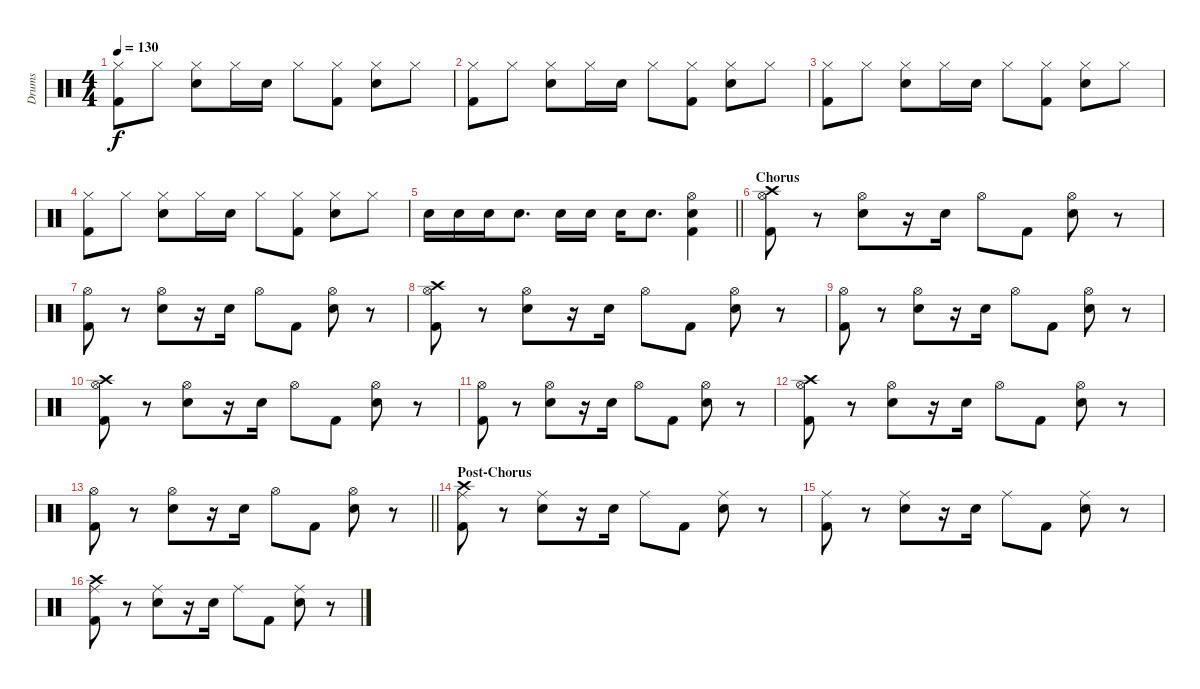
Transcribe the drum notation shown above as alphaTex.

\track ("Drums" "Drums") {instrument percussion}
\staff {score}
\articulation defaults
\ts (4 4)
\tempo 130
\clef neutral
\ks c
("Hi-Hat (closed)" "Kick (hit) 2").8{dy f} "Hi-Hat (closed)".8 ("Hi-Hat (closed)" "Snare (hit) 2").8 "Hi-Hat (closed)".16 "Snare (hit) 2".16 "Hi-Hat (closed)".8 ("Hi-Hat (closed)" "Kick (hit) 2").8 ("Hi-Hat (closed)" "Snare (hit) 2").8 "Hi-Hat (closed)".8 |
("Hi-Hat (closed)" "Kick (hit) 2").8 "Hi-Hat (closed)".8 ("Hi-Hat (closed)" "Snare (hit) 2").8 "Hi-Hat (closed)".16 "Snare (hit) 2".16 "Hi-Hat (closed)".8 ("Hi-Hat (closed)" "Kick (hit) 2").8 ("Hi-Hat (closed)" "Snare (hit) 2").8 "Hi-Hat (closed)".8 |
("Hi-Hat (closed)" "Kick (hit) 2").8 "Hi-Hat (closed)".8 ("Hi-Hat (closed)" "Snare (hit) 2").8 "Hi-Hat (closed)".16 "Snare (hit) 2".16 "Hi-Hat (closed)".8 ("Hi-Hat (closed)" "Kick (hit) 2").8 ("Hi-Hat (closed)" "Snare (hit) 2").8 "Hi-Hat (closed)".8 |
("Hi-Hat (closed)" "Kick (hit) 2").8 "Hi-Hat (closed)".8 ("Hi-Hat (closed)" "Snare (hit) 2").8 "Hi-Hat (closed)".16 "Snare (hit) 2".16 "Hi-Hat (closed)".8 ("Hi-Hat (closed)" "Kick (hit) 2").8 ("Hi-Hat (closed)" "Snare (hit) 2").8 "Hi-Hat (closed)".8 |
\barLineRight lightlight "Snare (hit) 2".16 "Snare (hit) 2".16 "Snare (hit) 2".16 "Snare (hit) 2".8{d} "Snare (hit) 2".16 "Snare (hit) 2".16 "Snare (hit) 2".16 "Snare (hit) 2".8{d}
("Hi-Hat (open)" "Snare (hit) 2" "Kick (hit) 2").4 |
\section ("" "Chorus")
("Crash high (hit)" "Hi-Hat (open)" "Kick (hit) 2").8 r.8 ("Hi-Hat (open)" "Snare (hit) 2").8 r.16 "Snare (hit) 2".16 "Hi-Hat (open)".8 "Kick (hit) 2".8 ("Hi-Hat (open)" "Snare (hit) 2").8 r.8 |
("Hi-Hat (open)" "Kick (hit) 2").8 r.8 ("Hi-Hat (open)" "Snare (hit) 2").8 r.16 "Snare (hit) 2".16 "Hi-Hat (open)".8 "Kick (hit) 2".8 ("Hi-Hat (open)" "Snare (hit) 2").8 r.8 |
("Crash high (hit)" "Hi-Hat (open)" "Kick (hit) 2").8 r.8 ("Hi-Hat (open)" "Snare (hit) 2").8 r.16 "Snare (hit) 2".16 "Hi-Hat (open)".8 "Kick (hit) 2".8 ("Hi-Hat (open)" "Snare (hit) 2").8 r.8 |
("Hi-Hat (open)" "Kick (hit) 2").8 r.8 ("Hi-Hat (open)" "Snare (hit) 2").8 r.16 "Snare (hit) 2".16 "Hi-Hat (open)".8 "Kick (hit) 2".8 ("Hi-Hat (open)" "Snare (hit) 2").8 r.8 |
("Crash high (hit)" "Hi-Hat (open)" "Kick (hit) 2").8 r.8 ("Hi-Hat (open)" "Snare (hit) 2").8 r.16 "Snare (hit) 2".16 "Hi-Hat (open)".8 "Kick (hit) 2".8 ("Hi-Hat (open)" "Snare (hit) 2").8 r.8 |
("Hi-Hat (open)" "Kick (hit) 2").8 r.8 ("Hi-Hat (open)" "Snare (hit) 2").8 r.16 "Snare (hit) 2".16 "Hi-Hat (open)".8 "Kick (hit) 2".8 ("Hi-Hat (open)" "Snare (hit) 2").8 r.8 |
("Crash high (hit)" "Hi-Hat (open)" "Kick (hit) 2").8 r.8 ("Hi-Hat (open)" "Snare (hit) 2").8 r.16 "Snare (hit) 2".16 "Hi-Hat (open)".8 "Kick (hit) 2".8 ("Hi-Hat (open)" "Snare (hit) 2").8 r.8 |
\barLineRight lightlight
("Hi-Hat (open)" "Kick (hit) 2").8 r.8 ("Hi-Hat (open)" "Snare (hit) 2").8 r.16 "Snare (hit) 2".16 "Hi-Hat (open)".8 "Kick (hit) 2".8 ("Hi-Hat (open)" "Snare (hit) 2").8 r.8 |
\section ("" "Post-Chorus")
("Crash high (hit)" "Ride (middle)" "Kick (hit) 2").8 r.8 ("Ride (middle)" "Snare (hit) 2").8 r.16 "Snare (hit) 2".16 "Ride (middle)".8 "Kick (hit) 2".8 ("Ride (middle)" "Snare (hit) 2").8 r.8 |
("Ride (middle)" "Kick (hit) 2").8 r.8 ("Ride (middle)" "Snare (hit) 2").8 r.16 "Snare (hit) 2".16 "Ride (middle)".8 "Kick (hit) 2".8 ("Ride (middle)" "Snare (hit) 2").8 r.8 |
("Crash high (hit)" "Ride (middle)" "Kick (hit) 2").8 r.8 ("Ride (middle)" "Snare (hit) 2").8 r.16 "Snare (hit) 2".16 "Ride (middle)".8 "Kick (hit) 2".8 ("Ride (middle)" "Snare (hit) 2").8 r.8
